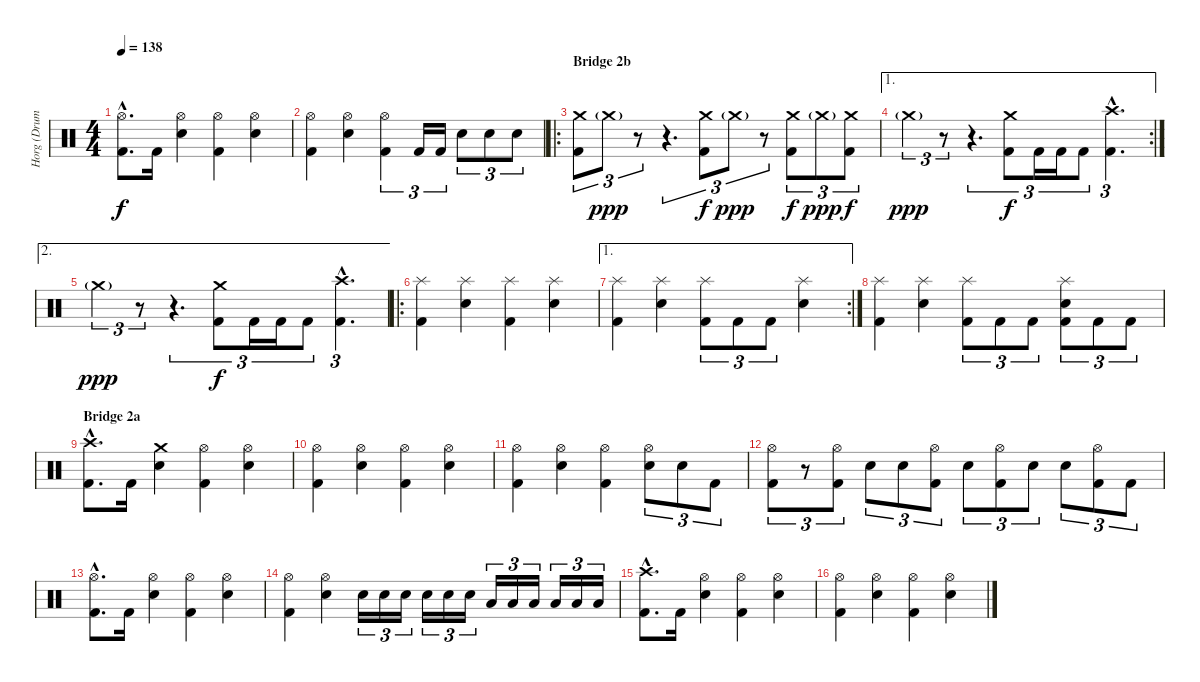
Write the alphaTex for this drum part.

\track ("Horg (Drums)" "Horg (Drum") {instrument percussion}
\staff {score}
\articulation defaults
\ts (4 4)
\tempo 138
\clef neutral
\ks c
("Hi-Hat (open)"{hac} "Kick (hit) 2"{hac}).8{d dy f} "Kick (hit) 2".16 ("Hi-Hat (open)" "Electric Snare (hit)").4 ("Hi-Hat (open)" "Kick (hit) 2").4 ("Hi-Hat (open)" "Electric Snare (hit)").4 |
("Hi-Hat (open)" "Kick (hit) 2").4 ("Hi-Hat (open)" "Electric Snare (hit)").4 ("Hi-Hat (open)" "Kick (hit) 2").4{tu (3 2)} "Kick (hit) 2".16{tu (3 2)} "Kick (hit) 2".16{tu (3 2)} "Electric Snare (hit)".8{tu (3 2)} "Electric Snare (hit)".8{tu (3 2)} "Electric Snare (hit)".8{tu (3 2)} |
\ro
\section ("" "Bridge 2b")
("Crash medium (hit)" "Kick (hit) 2").8{tu (3 2)} "Crash medium (hit)"{g}.8{tu (3 2) dy ppp} r.8{tu (3 2) volume 0} r.4{d tu (3 2)} ("Crash medium (hit)" "Kick (hit) 2").8{tu (3 2) dy f volume 15} "Crash medium (hit)"{g}.8{tu (3 2) dy ppp} r.8{tu (3 2)} ("Crash medium (hit)" "Kick (hit) 2").8{tu (3 2) dy f} "Crash medium (hit)"{g}.8{tu (3 2) dy ppp} ("Crash medium (hit)" "Kick (hit) 2").8{tu (3 2) dy f} |
\ae 1
\rc 2 "Crash medium (hit)"{g}.4{tu (3 2) dy ppp}
r.8{tu (3 2)} r.4{d tu (3 2)} ("Crash medium (hit)" "Kick (hit) 2").8{tu (3 2) dy f} "Kick (hit) 2".16{tu (3 2)} "Kick (hit) 2".16{tu (3 2)} "Kick (hit) 2".8{tu (3 2)} ("Crash high (hit)"{hac} "Kick (hit) 2"{hac}).4{d tu (3 2)} |
\ae 2 "Crash medium (hit)"{g}.4{tu (3 2) dy ppp}
r.8{tu (3 2)} r.4{d tu (3 2)} ("Crash medium (hit)" "Kick (hit) 2").8{tu (3 2) dy f} "Kick (hit) 2".16{tu (3 2)} "Kick (hit) 2".16{tu (3 2)} "Kick (hit) 2".8{tu (3 2)} ("Crash high (hit)"{hac} "Kick (hit) 2"{hac}).4{d tu (3 2)} |
\ro
("Splash (hit)" "Kick (hit) 2").4 ("Splash (hit)" "Electric Snare (hit)").4 ("Splash (hit)" "Kick (hit) 2").4 ("Splash (hit)" "Electric Snare (hit)").4 |
\ae 1
\rc 2
("Splash (hit)" "Kick (hit) 2").4 ("Splash (hit)" "Electric Snare (hit)").4 ("Splash (hit)" "Kick (hit) 2").8{tu (3 2)} "Kick (hit) 2".8{tu (3 2)} "Kick (hit) 2".8{tu (3 2)} ("Splash (hit)" "Electric Snare (hit)").4 |
("Splash (hit)" "Kick (hit) 2").4 ("Splash (hit)" "Electric Snare (hit)").4 ("Splash (hit)" "Kick (hit) 2").8{tu (3 2)} "Kick (hit) 2".8{tu (3 2)} "Kick (hit) 2".8{tu (3 2)} ("Splash (hit)" "Electric Snare (hit)" "Kick (hit) 2").8{tu (3 2)} "Kick (hit) 2".8{tu (3 2)} "Kick (hit) 2".8{tu (3 2)} |
\section ("" "Bridge 2a")
("Crash high (hit)"{hac} "Kick (hit) 2"{hac}).8{d} "Kick (hit) 2".16 ("Crash medium (hit)" "Electric Snare (hit)").4 ("Hi-Hat (open)" "Kick (hit) 2").4 ("Hi-Hat (open)" "Electric Snare (hit)").4 |
("Hi-Hat (open)" "Kick (hit) 2").4 ("Hi-Hat (open)" "Electric Snare (hit)").4 ("Hi-Hat (open)" "Kick (hit) 2").4 ("Hi-Hat (open)" "Electric Snare (hit)").4 |
("Hi-Hat (open)" "Kick (hit) 2").4 ("Hi-Hat (open)" "Electric Snare (hit)").4 ("Hi-Hat (open)" "Kick (hit) 2").4 ("Hi-Hat (open)" "Electric Snare (hit)").8{tu (3 2)} "Electric Snare (hit)".8{tu (3 2)} "Kick (hit) 2".8{tu (3 2)} |
("Hi-Hat (open)" "Kick (hit) 2").8{tu (3 2)} r.8{tu (3 2)} ("Hi-Hat (open)" "Kick (hit) 2").8{tu (3 2)} "Electric Snare (hit)".8{tu (3 2)} "Electric Snare (hit)".8{tu (3 2)} ("Hi-Hat (open)" "Kick (hit) 2").8{tu (3 2)} "Electric Snare (hit)".8{tu (3 2)} ("Hi-Hat (open)" "Kick (hit) 2").8{tu (3 2)} "Electric Snare (hit)".8{tu (3 2)} "Electric Snare (hit)".8{tu (3 2)} ("Hi-Hat (open)" "Kick (hit) 2").8{tu (3 2)} "Kick (hit) 2".8{tu (3 2)} |
("Hi-Hat (open)"{hac} "Kick (hit) 2"{hac}).8{d} "Kick (hit) 2".16 ("Hi-Hat (open)" "Electric Snare (hit)").4 ("Hi-Hat (open)" "Kick (hit) 2").4 ("Hi-Hat (open)" "Electric Snare (hit)").4 |
("Hi-Hat (open)" "Kick (hit) 2").4 ("Hi-Hat (open)" "Electric Snare (hit)").4 "Electric Snare (hit)".16{tu (3 2)} "Electric Snare (hit)".16{tu (3 2)} "Electric Snare (hit)".16{tu (3 2)} "Electric Snare (hit)".16{tu (3 2)} "Electric Snare (hit)".16{tu (3 2)} "Electric Snare (hit)".16{tu (3 2)} "Low Tom (hit)".16{tu (3 2)} "Low Tom (hit)".16{tu (3 2)} "Low Tom (hit)".16{tu (3 2)} "Low Tom (hit)".16{tu (3 2)} "Low Tom (hit)".16{tu (3 2)} "Low Tom (hit)".16{tu (3 2)} |
("Crash high (hit)"{hac} "Kick (hit) 2"{hac}).8{d} "Kick (hit) 2".16 ("Hi-Hat (open)" "Electric Snare (hit)").4 ("Hi-Hat (open)" "Kick (hit) 2").4 ("Hi-Hat (open)" "Electric Snare (hit)").4 |
("Hi-Hat (open)" "Kick (hit) 2").4 ("Hi-Hat (open)" "Electric Snare (hit)").4 ("Hi-Hat (open)" "Kick (hit) 2").4 ("Hi-Hat (open)" "Electric Snare (hit)").4
